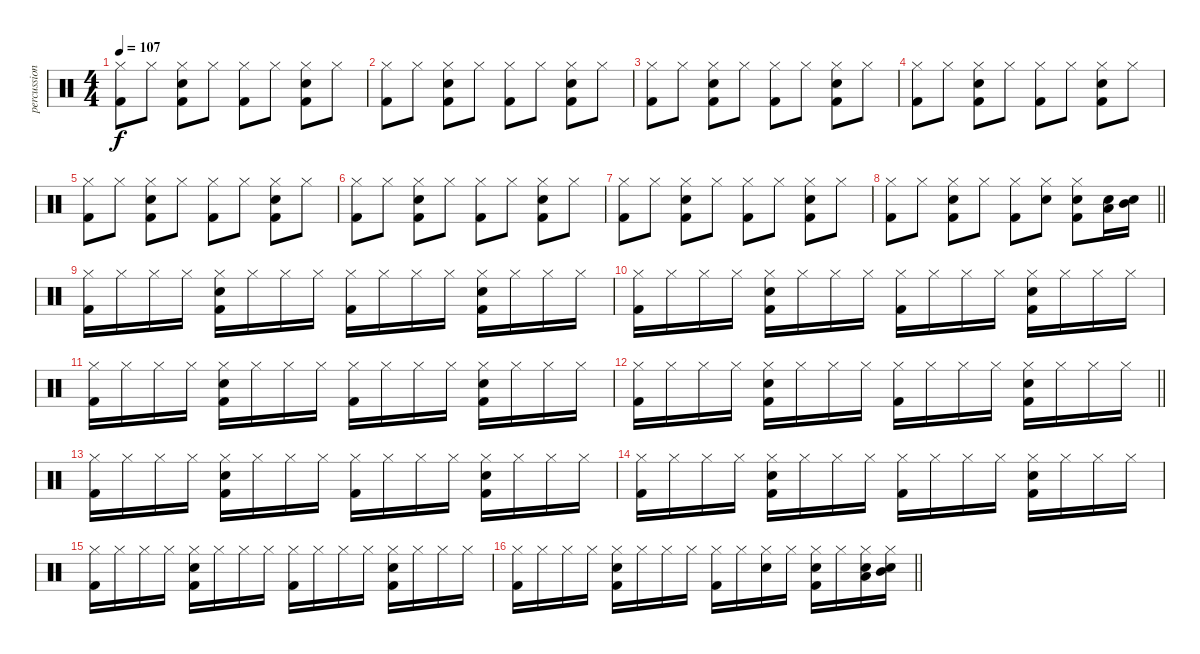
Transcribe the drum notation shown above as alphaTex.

\track ("percussion" "percussion") {instrument percussion}
\staff {score}
\articulation defaults
\ts (4 4)
\tempo 107
\clef neutral
\ks c
("Hi-Hat (closed)" "Kick (hit) 2").8{dy f} "Hi-Hat (closed)".8 ("Snare (hit) 2" "Hi-Hat (closed)" "Kick (hit) 2").8 "Hi-Hat (closed)".8 ("Hi-Hat (closed)" "Kick (hit) 2").8 "Hi-Hat (closed)".8 ("Snare (hit) 2" "Hi-Hat (closed)" "Kick (hit) 2").8 "Hi-Hat (closed)".8 |
("Hi-Hat (closed)" "Kick (hit) 2").8 "Hi-Hat (closed)".8 ("Snare (hit) 2" "Hi-Hat (closed)" "Kick (hit) 2").8 "Hi-Hat (closed)".8 ("Hi-Hat (closed)" "Kick (hit) 2").8 "Hi-Hat (closed)".8 ("Snare (hit) 2" "Hi-Hat (closed)" "Kick (hit) 2").8 "Hi-Hat (closed)".8 |
("Hi-Hat (closed)" "Kick (hit) 2").8 "Hi-Hat (closed)".8 ("Snare (hit) 2" "Hi-Hat (closed)" "Kick (hit) 2").8 "Hi-Hat (closed)".8 ("Hi-Hat (closed)" "Kick (hit) 2").8 "Hi-Hat (closed)".8 ("Snare (hit) 2" "Hi-Hat (closed)" "Kick (hit) 2").8 "Hi-Hat (closed)".8 |
("Hi-Hat (closed)" "Kick (hit) 2").8 "Hi-Hat (closed)".8 ("Snare (hit) 2" "Hi-Hat (closed)" "Kick (hit) 2").8 "Hi-Hat (closed)".8 ("Hi-Hat (closed)" "Kick (hit) 2").8 "Hi-Hat (closed)".8 ("Snare (hit) 2" "Hi-Hat (closed)" "Kick (hit) 2").8 "Hi-Hat (closed)".8 |
("Hi-Hat (closed)" "Kick (hit) 2").8 "Hi-Hat (closed)".8 ("Snare (hit) 2" "Hi-Hat (closed)" "Kick (hit) 2").8 "Hi-Hat (closed)".8 ("Hi-Hat (closed)" "Kick (hit) 2").8 "Hi-Hat (closed)".8 ("Snare (hit) 2" "Hi-Hat (closed)" "Kick (hit) 2").8 "Hi-Hat (closed)".8 |
("Hi-Hat (closed)" "Kick (hit) 2").8 "Hi-Hat (closed)".8 ("Snare (hit) 2" "Hi-Hat (closed)" "Kick (hit) 2").8 "Hi-Hat (closed)".8 ("Hi-Hat (closed)" "Kick (hit) 2").8 "Hi-Hat (closed)".8 ("Snare (hit) 2" "Hi-Hat (closed)" "Kick (hit) 2").8 "Hi-Hat (closed)".8 |
("Hi-Hat (closed)" "Kick (hit) 2").8 "Hi-Hat (closed)".8 ("Snare (hit) 2" "Hi-Hat (closed)" "Kick (hit) 2").8 "Hi-Hat (closed)".8 ("Hi-Hat (closed)" "Kick (hit) 2").8 "Hi-Hat (closed)".8 ("Snare (hit) 2" "Hi-Hat (closed)" "Kick (hit) 2").8 "Hi-Hat (closed)".8 |
\barLineRight lightlight
("Hi-Hat (closed)" "Kick (hit) 2").8 "Hi-Hat (closed)".8 ("Snare (hit) 2" "Hi-Hat (closed)" "Kick (hit) 2").8 "Hi-Hat (closed)".8 ("Hi-Hat (closed)" "Kick (hit) 2").8 ("Snare (hit) 2" "Hi-Hat (closed)").8 ("Snare (hit) 2" "Hi-Hat (closed)" "Kick (hit) 2").8 ("Low Tom (hit)" "Snare (hit) 2").16 ("Mid Tom (hit)" "Snare (hit) 2").16 |
("Hi-Hat (closed)" "Kick (hit) 2").16 "Hi-Hat (closed)".16 "Hi-Hat (closed)".16 "Hi-Hat (closed)".16 ("Snare (hit) 2" "Hi-Hat (closed)" "Kick (hit) 2").16 "Hi-Hat (closed)".16 "Hi-Hat (closed)".16 "Hi-Hat (closed)".16 ("Hi-Hat (closed)" "Kick (hit) 2").16 "Hi-Hat (closed)".16 "Hi-Hat (closed)".16 "Hi-Hat (closed)".16 ("Snare (hit) 2" "Hi-Hat (closed)" "Kick (hit) 2").16 "Hi-Hat (closed)".16 "Hi-Hat (closed)".16 "Hi-Hat (closed)".16 |
("Hi-Hat (closed)" "Kick (hit) 2").16 "Hi-Hat (closed)".16 "Hi-Hat (closed)".16 "Hi-Hat (closed)".16 ("Snare (hit) 2" "Hi-Hat (closed)" "Kick (hit) 2").16 "Hi-Hat (closed)".16 "Hi-Hat (closed)".16 "Hi-Hat (closed)".16 ("Hi-Hat (closed)" "Kick (hit) 2").16 "Hi-Hat (closed)".16 "Hi-Hat (closed)".16 "Hi-Hat (closed)".16 ("Snare (hit) 2" "Hi-Hat (closed)" "Kick (hit) 2").16 "Hi-Hat (closed)".16 "Hi-Hat (closed)".16 "Hi-Hat (closed)".16 |
("Hi-Hat (closed)" "Kick (hit) 2").16 "Hi-Hat (closed)".16 "Hi-Hat (closed)".16 "Hi-Hat (closed)".16 ("Snare (hit) 2" "Hi-Hat (closed)" "Kick (hit) 2").16 "Hi-Hat (closed)".16 "Hi-Hat (closed)".16 "Hi-Hat (closed)".16 ("Hi-Hat (closed)" "Kick (hit) 2").16 "Hi-Hat (closed)".16 "Hi-Hat (closed)".16 "Hi-Hat (closed)".16 ("Snare (hit) 2" "Hi-Hat (closed)" "Kick (hit) 2").16 "Hi-Hat (closed)".16 "Hi-Hat (closed)".16 "Hi-Hat (closed)".16 |
\barLineRight lightlight
("Hi-Hat (closed)" "Kick (hit) 2").16 "Hi-Hat (closed)".16 "Hi-Hat (closed)".16 "Hi-Hat (closed)".16 ("Snare (hit) 2" "Hi-Hat (closed)" "Kick (hit) 2").16 "Hi-Hat (closed)".16 "Hi-Hat (closed)".16 "Hi-Hat (closed)".16 ("Hi-Hat (closed)" "Kick (hit) 2").16 "Hi-Hat (closed)".16 "Hi-Hat (closed)".16 "Hi-Hat (closed)".16 ("Snare (hit) 2" "Hi-Hat (closed)" "Kick (hit) 2").16 "Hi-Hat (closed)".16 "Hi-Hat (closed)".16 "Hi-Hat (closed)".16 |
("Hi-Hat (closed)" "Kick (hit) 2").16 "Hi-Hat (closed)".16 "Hi-Hat (closed)".16 "Hi-Hat (closed)".16 ("Snare (hit) 2" "Hi-Hat (closed)" "Kick (hit) 2").16 "Hi-Hat (closed)".16 "Hi-Hat (closed)".16 "Hi-Hat (closed)".16 ("Hi-Hat (closed)" "Kick (hit) 2").16 "Hi-Hat (closed)".16 "Hi-Hat (closed)".16 "Hi-Hat (closed)".16 ("Snare (hit) 2" "Hi-Hat (closed)" "Kick (hit) 2").16 "Hi-Hat (closed)".16 "Hi-Hat (closed)".16 "Hi-Hat (closed)".16 |
("Hi-Hat (closed)" "Kick (hit) 2").16 "Hi-Hat (closed)".16 "Hi-Hat (closed)".16 "Hi-Hat (closed)".16 ("Snare (hit) 2" "Hi-Hat (closed)" "Kick (hit) 2").16 "Hi-Hat (closed)".16 "Hi-Hat (closed)".16 "Hi-Hat (closed)".16 ("Hi-Hat (closed)" "Kick (hit) 2").16 "Hi-Hat (closed)".16 "Hi-Hat (closed)".16 "Hi-Hat (closed)".16 ("Snare (hit) 2" "Hi-Hat (closed)" "Kick (hit) 2").16 "Hi-Hat (closed)".16 "Hi-Hat (closed)".16 "Hi-Hat (closed)".16 |
("Hi-Hat (closed)" "Kick (hit) 2").16 "Hi-Hat (closed)".16 "Hi-Hat (closed)".16 "Hi-Hat (closed)".16 ("Snare (hit) 2" "Hi-Hat (closed)" "Kick (hit) 2").16 "Hi-Hat (closed)".16 "Hi-Hat (closed)".16 "Hi-Hat (closed)".16 ("Hi-Hat (closed)" "Kick (hit) 2").16 "Hi-Hat (closed)".16 "Hi-Hat (closed)".16 "Hi-Hat (closed)".16 ("Snare (hit) 2" "Hi-Hat (closed)" "Kick (hit) 2").16 "Hi-Hat (closed)".16 "Hi-Hat (closed)".16 "Hi-Hat (closed)".16 |
\barLineRight lightlight
("Hi-Hat (closed)" "Kick (hit) 2").16 "Hi-Hat (closed)".16 "Hi-Hat (closed)".16 "Hi-Hat (closed)".16 ("Snare (hit) 2" "Hi-Hat (closed)" "Kick (hit) 2").16 "Hi-Hat (closed)".16 "Hi-Hat (closed)".16 "Hi-Hat (closed)".16 ("Hi-Hat (closed)" "Kick (hit) 2").16 "Hi-Hat (closed)".16 ("Snare (hit) 2" "Hi-Hat (closed)").16 "Hi-Hat (closed)".16 ("Snare (hit) 2" "Hi-Hat (closed)" "Kick (hit) 2").16 "Hi-Hat (closed)".16 ("Low Tom (hit)" "Snare (hit) 2" "Hi-Hat (closed)").16 ("Mid Tom (hit)" "Snare (hit) 2" "Hi-Hat (closed)").16
